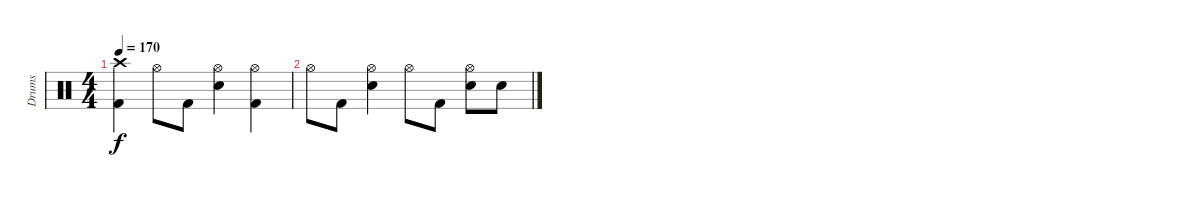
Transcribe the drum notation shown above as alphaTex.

\track ("Drums" "Drums") {instrument percussion}
\staff {score}
\articulation defaults
\ts (4 4)
\tempo 170
\clef neutral
\ks c
("Crash high (hit)" "Kick (hit) 2").4{dy f} "Hi-Hat (open)".8 "Kick (hit) 2".8 ("Hi-Hat (open)" "Snare (hit) 2").4 ("Hi-Hat (open)" "Kick (hit) 2").4 |
"Hi-Hat (open)".8 "Kick (hit) 2".8 ("Hi-Hat (open)" "Snare (hit) 2").4 "Hi-Hat (open)".8 "Kick (hit) 2".8 ("Hi-Hat (open)" "Snare (hit) 2").8 "Snare (hit) 2".8
